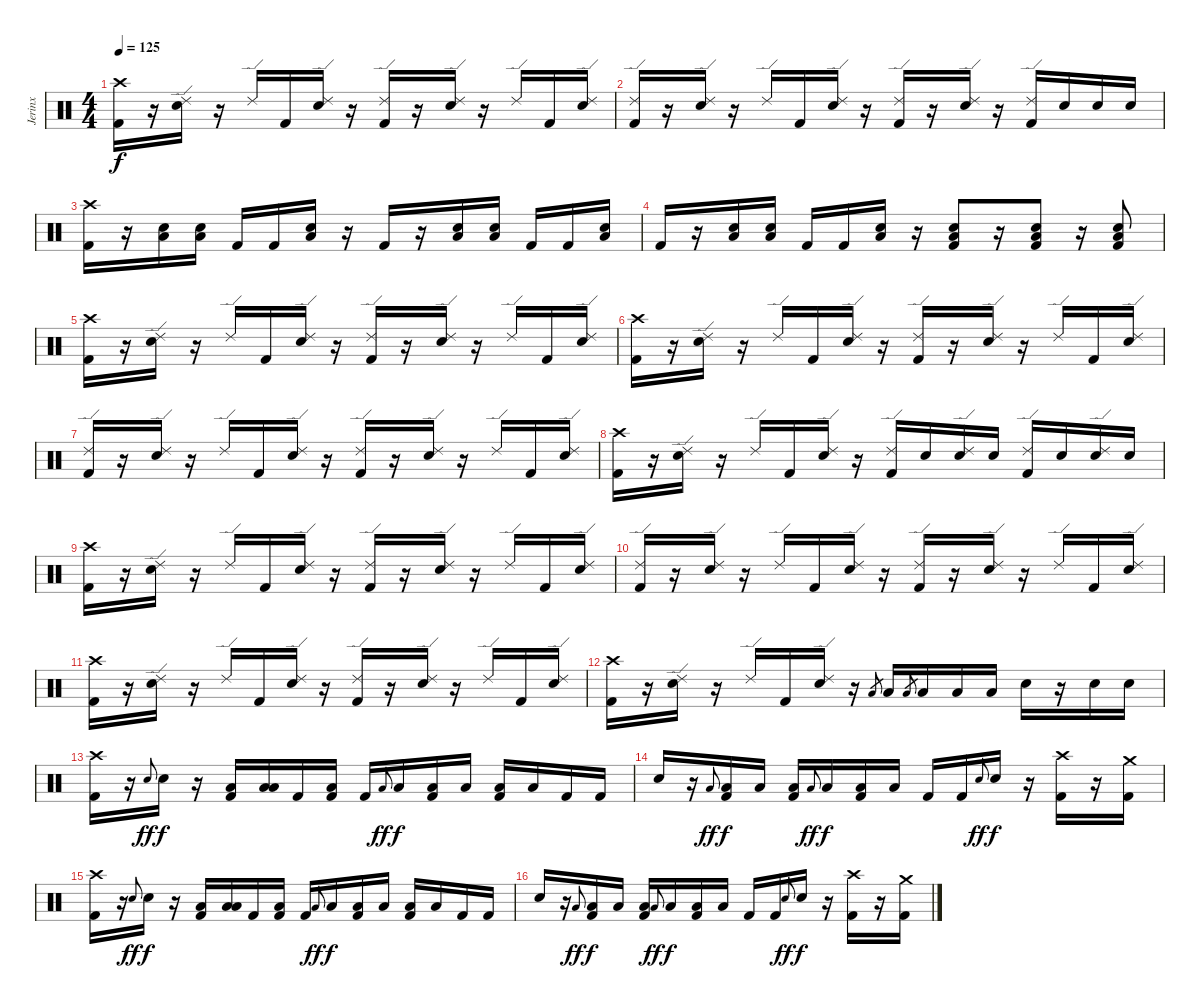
\track ("Jerinx" "Jerinx") {instrument percussion}
\staff {score}
\articulation defaults
\ts (4 4)
\tempo 125
\clef neutral
\ks c
("Kick (hit) 2" "Crash high (hit)").16{dy f} r.16 ("Electric Snare (hit)" "Ride (edge) 2").16 r.16 "Ride (edge) 2".16 "Kick (hit) 2".16 ("Electric Snare (hit)" "Ride (edge) 2").16 r.16 ("Kick (hit) 2" "Ride (edge) 2").16 r.16 ("Electric Snare (hit)" "Ride (edge) 2").16 r.16 "Ride (edge) 2".16 "Kick (hit) 2".16 ("Electric Snare (hit)" "Ride (edge) 2").16 |
("Kick (hit) 2" "Ride (edge) 2").16 r.16 ("Electric Snare (hit)" "Ride (edge) 2").16 r.16 "Ride (edge) 2".16 "Kick (hit) 2".16 ("Electric Snare (hit)" "Ride (edge) 2").16 r.16 ("Kick (hit) 2" "Ride (edge) 2").16 r.16 ("Electric Snare (hit)" "Ride (edge) 2").16 r.16 ("Kick (hit) 2" "Ride (edge) 2").16 "Electric Snare (hit)".16 "Electric Snare (hit)".16 "Electric Snare (hit)".16 |
("Kick (hit) 2" "Crash high (hit)").16 r.16 ("Electric Snare (hit)" "Low Floor Tom (hit)").16 ("Electric Snare (hit)" "Low Floor Tom (hit)").16 "Kick (hit) 2".16 "Kick (hit) 2".16 ("Electric Snare (hit)" "Low Floor Tom (hit)").16 r.16 "Kick (hit) 2".16 r.16 ("Electric Snare (hit)" "Low Floor Tom (hit)").16 ("Electric Snare (hit)" "Low Floor Tom (hit)").16 "Kick (hit) 2".16 "Kick (hit) 2".16 ("Electric Snare (hit)" "Low Floor Tom (hit)").16 |
"Kick (hit) 2".16 r.16 ("Electric Snare (hit)" "Low Floor Tom (hit)").16 ("Electric Snare (hit)" "Low Floor Tom (hit)").16 "Kick (hit) 2".16 "Kick (hit) 2".16 ("Electric Snare (hit)" "Low Floor Tom (hit)").16 r.16 ("Kick (hit) 2" "Electric Snare (hit)" "Low Floor Tom (hit)").8 r.16 ("Kick (hit) 2" "Electric Snare (hit)" "Low Floor Tom (hit)").8 r.16 ("Kick (hit) 2" "Electric Snare (hit)" "Low Floor Tom (hit)").8 |
("Kick (hit) 2" "Crash high (hit)").16 r.16 ("Electric Snare (hit)" "Ride (edge) 2").16 r.16 "Ride (edge) 2".16 "Kick (hit) 2".16 ("Electric Snare (hit)" "Ride (edge) 2").16 r.16 ("Kick (hit) 2" "Ride (edge) 2").16 r.16 ("Electric Snare (hit)" "Ride (edge) 2").16 r.16 "Ride (edge) 2".16 "Kick (hit) 2".16 ("Electric Snare (hit)" "Ride (edge) 2").16 |
("Kick (hit) 2" "Crash high (hit)").16 r.16 ("Electric Snare (hit)" "Ride (edge) 2").16 r.16 "Ride (edge) 2".16 "Kick (hit) 2".16 ("Electric Snare (hit)" "Ride (edge) 2").16 r.16 ("Kick (hit) 2" "Ride (edge) 2").16 r.16 ("Electric Snare (hit)" "Ride (edge) 2").16 r.16 "Ride (edge) 2".16 "Kick (hit) 2".16 ("Electric Snare (hit)" "Ride (edge) 2").16 |
("Kick (hit) 2" "Ride (edge) 2").16 r.16 ("Electric Snare (hit)" "Ride (edge) 2").16 r.16 "Ride (edge) 2".16 "Kick (hit) 2".16 ("Electric Snare (hit)" "Ride (edge) 2").16 r.16 ("Kick (hit) 2" "Ride (edge) 2").16 r.16 ("Electric Snare (hit)" "Ride (edge) 2").16 r.16 "Ride (edge) 2".16 "Kick (hit) 2".16 ("Electric Snare (hit)" "Ride (edge) 2").16 |
("Kick (hit) 2" "Crash high (hit)").16 r.16 ("Electric Snare (hit)" "Ride (edge) 2").16 r.16 "Ride (edge) 2".16 "Kick (hit) 2".16 ("Electric Snare (hit)" "Ride (edge) 2").16 r.16 ("Kick (hit) 2" "Ride (edge) 2").16 "Electric Snare (hit)".16 ("Electric Snare (hit)" "Ride (edge) 2").16 "Electric Snare (hit)".16 ("Kick (hit) 2" "Ride (edge) 2").16 "Electric Snare (hit)".16 ("Electric Snare (hit)" "Ride (edge) 2").16 "Electric Snare (hit)".16 |
("Kick (hit) 2" "Crash high (hit)").16 r.16 ("Electric Snare (hit)" "Ride (edge) 2").16 r.16 "Ride (edge) 2".16 "Kick (hit) 2".16 ("Electric Snare (hit)" "Ride (edge) 2").16 r.16 ("Kick (hit) 2" "Ride (edge) 2").16 r.16 ("Electric Snare (hit)" "Ride (edge) 2").16 r.16 "Ride (edge) 2".16 "Kick (hit) 2".16 ("Electric Snare (hit)" "Ride (edge) 2").16 |
("Kick (hit) 2" "Ride (edge) 2").16 r.16 ("Electric Snare (hit)" "Ride (edge) 2").16 r.16 "Ride (edge) 2".16 "Kick (hit) 2".16 ("Electric Snare (hit)" "Ride (edge) 2").16 r.16 ("Kick (hit) 2" "Ride (edge) 2").16 r.16 ("Electric Snare (hit)" "Ride (edge) 2").16 r.16 "Ride (edge) 2".16 "Kick (hit) 2".16 ("Electric Snare (hit)" "Ride (edge) 2").16 |
("Kick (hit) 2" "Crash high (hit)").16 r.16 ("Electric Snare (hit)" "Ride (edge) 2").16 r.16 "Ride (edge) 2".16 "Kick (hit) 2".16 ("Electric Snare (hit)" "Ride (edge) 2").16 r.16 ("Kick (hit) 2" "Ride (edge) 2").16 r.16 ("Electric Snare (hit)" "Ride (edge) 2").16 r.16 "Ride (edge) 2".16 "Kick (hit) 2".16 ("Electric Snare (hit)" "Ride (edge) 2").16 |
("Kick (hit) 2" "Crash high (hit)").16 r.16 ("Electric Snare (hit)" "Ride (edge) 2").16 r.16 "Ride (edge) 2".16 "Kick (hit) 2".16 ("Electric Snare (hit)" "Ride (edge) 2").16 r.16 "Low Tom (hit)".8{gr} "Low Tom (hit)".16 "Low Tom (hit)".8{gr} "Low Tom (hit)".16 "Low Floor Tom (hit)".16 "Low Floor Tom (hit)".16 "Electric Snare (hit)".16 r.16 "Electric Snare (hit)".16 "Electric Snare (hit)".16 |
("Kick (hit) 2" "Crash high (hit)").16 r.16 "Electric Snare (hit)".8{gr onbeat dy ff} "Electric Snare (hit)".16{dy f} r.16 ("Kick (hit) 2" "Low Floor Tom (hit)").16 ("Low Tom (hit)" "Low Floor Tom (hit)").16 "Kick (hit) 2".16 ("Kick (hit) 2" "Low Floor Tom (hit)").16 "Kick (hit) 2".16 "Low Tom (hit)".8{gr onbeat dy ff} "Low Tom (hit)".16{dy f} ("Kick (hit) 2" "Low Tom (hit)").16 "Low Tom (hit)".16 ("Kick (hit) 2" "Low Floor Tom (hit)").16 "Low Floor Tom (hit)".16 "Kick (hit) 2".16 "Kick (hit) 2".16 |
"Electric Snare (hit)".16 r.16 "Low Tom (hit)".8{gr onbeat dy ff} ("Kick (hit) 2" "Low Tom (hit)").16{dy f} "Low Tom (hit)".16 ("Kick (hit) 2" "Low Tom (hit)").16 "Low Floor Tom (hit)".8{gr onbeat dy ff} "Low Floor Tom (hit)".16{dy f} ("Kick (hit) 2" "Low Floor Tom (hit)").16 "Low Floor Tom (hit)".16 "Kick (hit) 2".16 "Kick (hit) 2".16 "Electric Snare (hit)".8{gr onbeat dy ff} "Electric Snare (hit)".16{dy f} r.16 ("Kick (hit) 2" "Crash high (hit)").16 r.16 ("Kick (hit) 2" "Crash medium (hit)").16 |
("Kick (hit) 2" "Crash high (hit)").16 r.16 "Electric Snare (hit)".8{gr onbeat dy ff} "Electric Snare (hit)".16{dy f} r.16 ("Kick (hit) 2" "Low Floor Tom (hit)").16 ("Low Tom (hit)" "Low Floor Tom (hit)").16 "Kick (hit) 2".16 ("Kick (hit) 2" "Low Floor Tom (hit)").16 "Kick (hit) 2".16 "Low Tom (hit)".8{gr onbeat dy ff} "Low Tom (hit)".16{dy f} ("Kick (hit) 2" "Low Tom (hit)").16 "Low Tom (hit)".16 ("Kick (hit) 2" "Low Floor Tom (hit)").16 "Low Floor Tom (hit)".16 "Kick (hit) 2".16 "Kick (hit) 2".16 |
"Electric Snare (hit)".16 r.16 "Low Tom (hit)".8{gr onbeat dy ff} ("Kick (hit) 2" "Low Tom (hit)").16{dy f} "Low Tom (hit)".16 ("Kick (hit) 2" "Low Tom (hit)").16 "Low Floor Tom (hit)".8{gr onbeat dy ff} "Low Floor Tom (hit)".16{dy f} ("Kick (hit) 2" "Low Floor Tom (hit)").16 "Low Floor Tom (hit)".16 "Kick (hit) 2".16 "Kick (hit) 2".16 "Electric Snare (hit)".8{gr onbeat dy ff} "Electric Snare (hit)".16{dy f} r.16 ("Kick (hit) 2" "Crash high (hit)").16 r.16 ("Kick (hit) 2" "Crash medium (hit)").16
